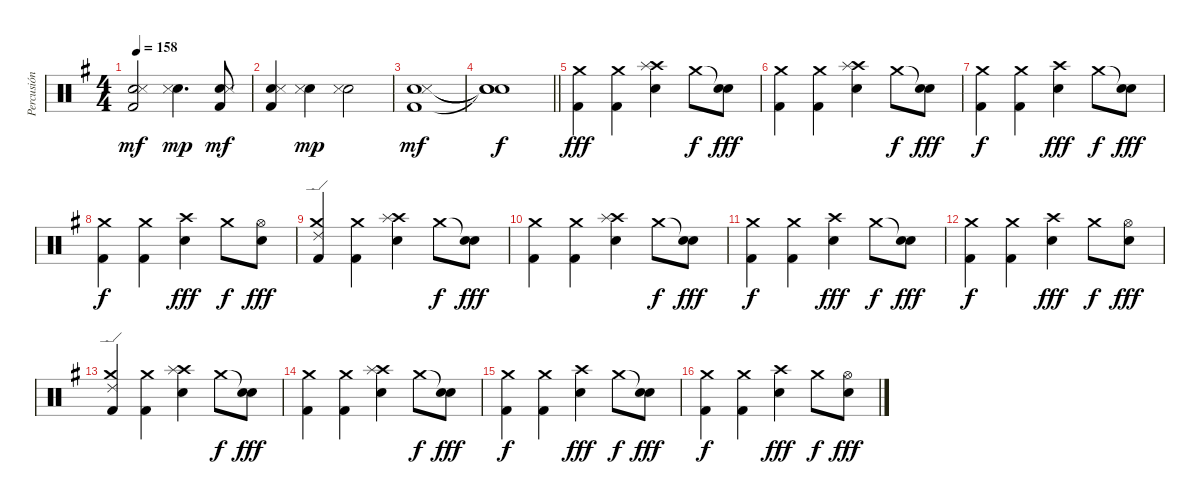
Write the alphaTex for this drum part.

\track ("Percusión" "Percusión") {instrument percussion}
\staff {score}
\articulation defaults
\ts (4 4)
\tempo 158
\clef neutral
\ks g
("Hand Clap (hit)" "Snare (side stick) 3" "Kick (hit) 2").2{dy mf} ("Hand Clap (hit)" "Snare (side stick) 3").4{d dy mp} ("Hand Clap (hit)" "Snare (side stick) 3" "Kick (hit) 2").8{dy mf} |
("Hand Clap (hit)" "Snare (side stick) 3" "Kick (hit) 2").4 ("Hand Clap (hit)" "Snare (side stick) 3").4{dy mp} ("Hand Clap (hit)" "Snare (side stick) 3").2 |
("Hand Clap (hit)" "Snare (side stick) 3" "Kick (hit) 2").1{dy mf} |
\barLineRight lightlight
("Snare (hit)"{t} "Snare (hit)"{t} "Snare (hit)"{t}).1{dy f} |
("Crash medium (hit)" "Kick (hit) 2").4{dy fff} ("Crash medium (hit)" "Kick (hit) 2").4 ("Crash high (hit)" "Splash (hit)" "Snare (hit) 2").4 "Crash medium (hit)".8{dy f} ("Snare (hit)"{t} "Snare (hit) 2").8{dy fff} |
("Crash medium (hit)" "Kick (hit) 2").4 ("Crash medium (hit)" "Kick (hit) 2").4 ("Crash high (hit)" "Splash (hit)" "Snare (hit) 2").4 "Crash medium (hit)".8{dy f} ("Snare (hit)"{t} "Snare (hit) 2").8{dy fff} |
("Crash medium (hit)" "Kick (hit) 2").4{dy f} ("Crash medium (hit)" "Kick (hit) 2").4 ("Crash high (hit)" "Snare (hit) 2").4{dy fff} "Crash medium (hit)".8{dy f} ("Snare (hit)"{t} "Snare (hit) 2").8{dy fff} |
("Crash medium (hit)" "Kick (hit) 2").4{dy f} ("Crash medium (hit)" "Kick (hit) 2").4 ("Crash high (hit)" "Snare (hit) 2").4{dy fff} "Crash medium (hit)".8{dy f} ("Hi-Hat (open)" "Snare (hit) 2").8{dy fff} |
("Crash medium (hit)" "Ride (edge) 2" "Kick (hit) 2").4 ("Crash medium (hit)" "Kick (hit) 2").4 ("Crash high (hit)" "Splash (hit)" "Snare (hit) 2").4 "Crash medium (hit)".8{dy f} ("Snare (hit)"{t} "Snare (hit) 2").8{dy fff} |
("Crash medium (hit)" "Kick (hit) 2").4 ("Crash medium (hit)" "Kick (hit) 2").4 ("Crash high (hit)" "Splash (hit)" "Snare (hit) 2").4 "Crash medium (hit)".8{dy f} ("Snare (hit)"{t} "Snare (hit) 2").8{dy fff} |
("Crash medium (hit)" "Kick (hit) 2").4{dy f} ("Crash medium (hit)" "Kick (hit) 2").4 ("Crash high (hit)" "Snare (hit) 2").4{dy fff} "Crash medium (hit)".8{dy f} ("Snare (hit)"{t} "Snare (hit) 2").8{dy fff} |
("Crash medium (hit)" "Kick (hit) 2").4{dy f} ("Crash medium (hit)" "Kick (hit) 2").4 ("Crash high (hit)" "Snare (hit) 2").4{dy fff} "Crash medium (hit)".8{dy f} ("Hi-Hat (open)" "Snare (hit) 2").8{dy fff} |
("Crash medium (hit)" "Ride (edge) 2" "Kick (hit) 2").4 ("Crash medium (hit)" "Kick (hit) 2").4 ("Crash high (hit)" "Splash (hit)" "Snare (hit) 2").4 "Crash medium (hit)".8{dy f} ("Snare (hit)"{t} "Snare (hit) 2").8{dy fff} |
("Crash medium (hit)" "Kick (hit) 2").4 ("Crash medium (hit)" "Kick (hit) 2").4 ("Crash high (hit)" "Splash (hit)" "Snare (hit) 2").4 "Crash medium (hit)".8{dy f} ("Snare (hit)"{t} "Snare (hit) 2").8{dy fff} |
("Crash medium (hit)" "Kick (hit) 2").4{dy f} ("Crash medium (hit)" "Kick (hit) 2").4 ("Crash high (hit)" "Snare (hit) 2").4{dy fff} "Crash medium (hit)".8{dy f} ("Snare (hit)"{t} "Snare (hit) 2").8{dy fff} |
("Crash medium (hit)" "Kick (hit) 2").4{dy f} ("Crash medium (hit)" "Kick (hit) 2").4 ("Crash high (hit)" "Snare (hit) 2").4{dy fff} "Crash medium (hit)".8{dy f} ("Hi-Hat (open)" "Snare (hit) 2").8{dy fff}
